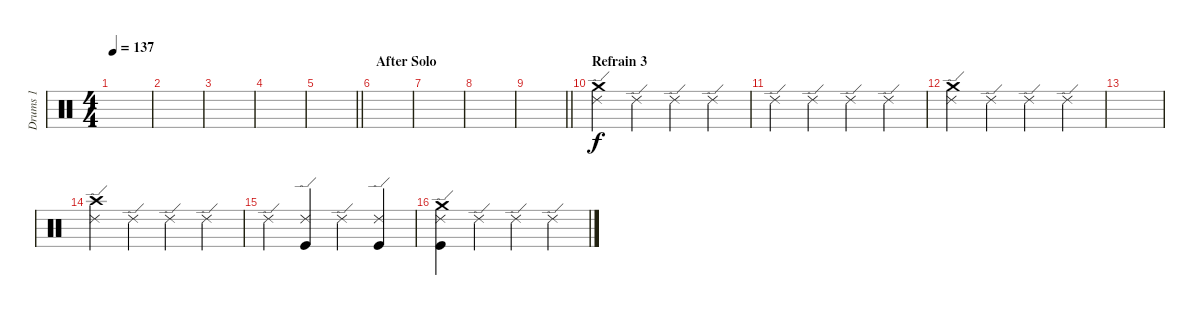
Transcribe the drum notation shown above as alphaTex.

\track ("Drums 1" "Drums 1") {instrument percussion}
\staff {score}
\articulation defaults
\ts (4 4)
\tempo 137
\clef neutral
\ks c
|
|
|
|
\barLineRight lightlight
|
\section ("" "After Solo")
|
|
|
\barLineRight lightlight
|
\section ("" "Refrain 3")
("Crash medium (hit)" "Ride (edge) 2").4 "Ride (edge) 2".4 "Ride (edge) 2".4 "Ride (edge) 2".4 |
"Ride (edge) 2".4 "Ride (edge) 2".4 "Ride (edge) 2".4 "Ride (edge) 2".4 |
("Crash medium (hit)" "Ride (edge) 2").4 "Ride (edge) 2".4 "Ride (edge) 2".4 "Ride (edge) 2".4 |
|
("Crash high (hit)" "Ride (edge) 2").4 "Ride (edge) 2".4 "Ride (edge) 2".4 "Ride (edge) 2".4 |
"Ride (edge) 2".4 ("Ride (edge) 2" "Kick (hit)").4 "Ride (edge) 2".4 ("Ride (edge) 2" "Kick (hit)").4 |
("Crash medium (hit)" "Ride (edge) 2" "Kick (hit)").4 "Ride (edge) 2".4 "Ride (edge) 2".4 "Ride (edge) 2".4
